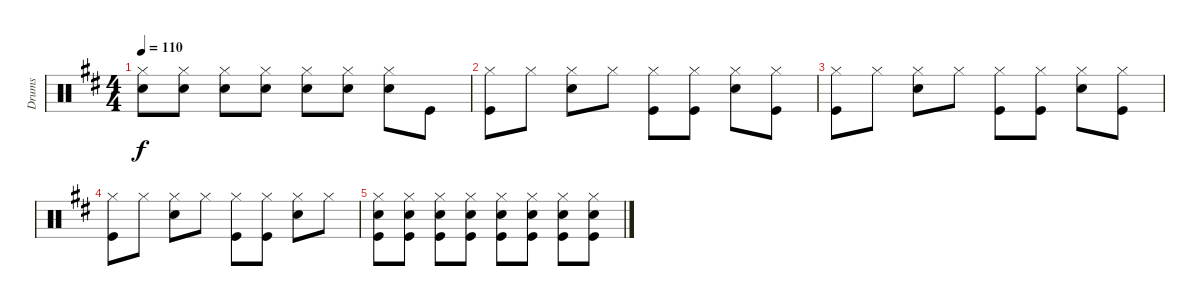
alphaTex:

\track ("Drums" "Drums") {instrument percussion}
\staff {score}
\articulation defaults
\ts (4 4)
\tempo 110
\clef neutral
\ks d
("Hi-Hat (closed)" "Snare (hit) 2").8{dy f} ("Hi-Hat (closed)" "Snare (hit) 2").8 ("Hi-Hat (closed)" "Snare (hit) 2").8 ("Hi-Hat (closed)" "Snare (hit) 2").8 ("Hi-Hat (closed)" "Snare (hit) 2").8 ("Hi-Hat (closed)" "Snare (hit) 2").8 ("Hi-Hat (closed)" "Snare (hit) 2").8 "Kick (hit)".8 |
("Hi-Hat (closed)" "Kick (hit)").8 "Hi-Hat (closed)".8 ("Hi-Hat (closed)" "Snare (hit) 2").8 "Hi-Hat (closed)".8 ("Hi-Hat (closed)" "Kick (hit)").8 ("Hi-Hat (closed)" "Kick (hit)").8 ("Hi-Hat (closed)" "Snare (hit) 2").8 ("Hi-Hat (closed)" "Kick (hit)").8 |
("Hi-Hat (closed)" "Kick (hit)").8 "Hi-Hat (closed)".8 ("Hi-Hat (closed)" "Snare (hit) 2").8 "Hi-Hat (closed)".8 ("Hi-Hat (closed)" "Kick (hit)").8 ("Hi-Hat (closed)" "Kick (hit)").8 ("Hi-Hat (closed)" "Snare (hit) 2").8 ("Hi-Hat (closed)" "Kick (hit)").8 |
("Hi-Hat (closed)" "Kick (hit)").8 "Hi-Hat (closed)".8 ("Hi-Hat (closed)" "Snare (hit) 2").8 "Hi-Hat (closed)".8 ("Hi-Hat (closed)" "Kick (hit)").8 ("Hi-Hat (closed)" "Kick (hit)").8 ("Hi-Hat (closed)" "Snare (hit) 2").8 "Hi-Hat (closed)".8 |
("Hi-Hat (closed)" "Snare (hit) 2" "Kick (hit)").8 ("Hi-Hat (closed)" "Snare (hit) 2" "Kick (hit)").8 ("Hi-Hat (closed)" "Snare (hit) 2" "Kick (hit)").8 ("Hi-Hat (closed)" "Snare (hit) 2" "Kick (hit)").8 ("Hi-Hat (closed)" "Snare (hit) 2" "Kick (hit)").8 ("Hi-Hat (closed)" "Snare (hit) 2" "Kick (hit)").8 ("Hi-Hat (closed)" "Snare (hit) 2" "Kick (hit)").8 ("Hi-Hat (closed)" "Snare (hit) 2" "Kick (hit)").8
